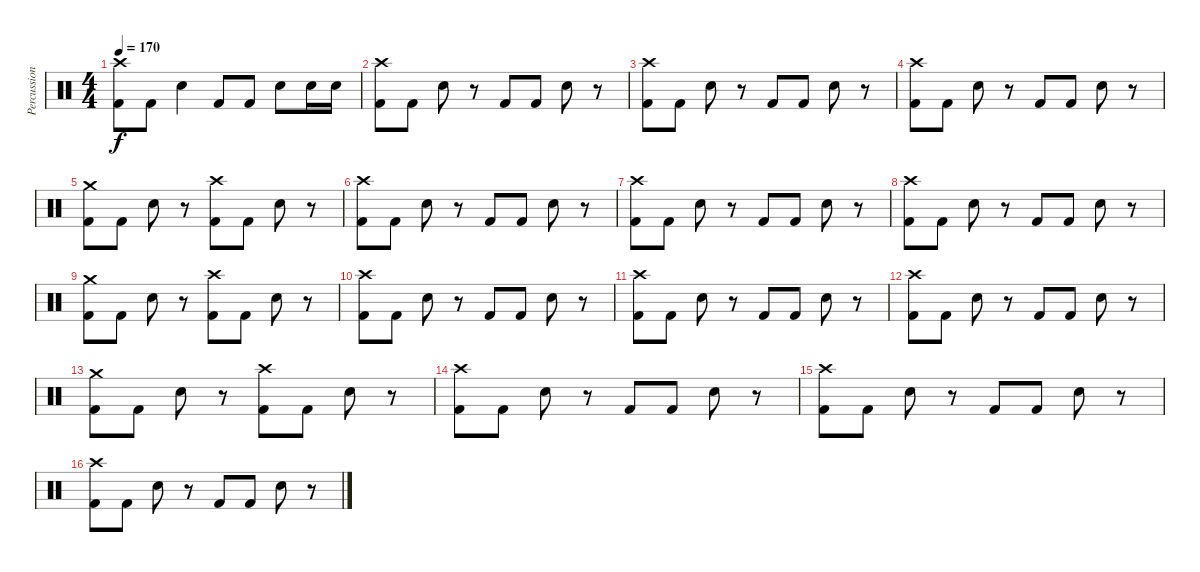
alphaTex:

\track ("Percussion" "Percussion") {instrument percussion}
\staff {score}
\articulation defaults
\ts (4 4)
\tempo 170
\clef neutral
\ks c
("Crash high (hit)" "Kick (hit) 2").8{dy f} "Kick (hit) 2".8 "Electric Snare (hit)".4 "Kick (hit) 2".8 "Kick (hit) 2".8 "Electric Snare (hit)".8 "Electric Snare (hit)".16 "Electric Snare (hit)".16 |
("Crash high (hit)" "Kick (hit) 2").8 "Kick (hit) 2".8 "Electric Snare (hit)".8 r.8 "Kick (hit) 2".8 "Kick (hit) 2".8 "Electric Snare (hit)".8 r.8 |
("Crash high (hit)" "Kick (hit) 2").8 "Kick (hit) 2".8 "Electric Snare (hit)".8 r.8 "Kick (hit) 2".8 "Kick (hit) 2".8 "Electric Snare (hit)".8 r.8 |
("Crash high (hit)" "Kick (hit) 2").8 "Kick (hit) 2".8 "Electric Snare (hit)".8 r.8 "Kick (hit) 2".8 "Kick (hit) 2".8 "Electric Snare (hit)".8 r.8 |
("Crash medium (hit)" "Kick (hit) 2").8 "Kick (hit) 2".8 "Electric Snare (hit)".8 r.8 ("Crash high (hit)" "Kick (hit) 2").8 "Kick (hit) 2".8 "Electric Snare (hit)".8 r.8 |
("Crash high (hit)" "Kick (hit) 2").8 "Kick (hit) 2".8 "Electric Snare (hit)".8 r.8 "Kick (hit) 2".8 "Kick (hit) 2".8 "Electric Snare (hit)".8 r.8 |
("Crash high (hit)" "Kick (hit) 2").8 "Kick (hit) 2".8 "Electric Snare (hit)".8 r.8 "Kick (hit) 2".8 "Kick (hit) 2".8 "Electric Snare (hit)".8 r.8 |
("Crash high (hit)" "Kick (hit) 2").8 "Kick (hit) 2".8 "Electric Snare (hit)".8 r.8 "Kick (hit) 2".8 "Kick (hit) 2".8 "Electric Snare (hit)".8 r.8 |
("Crash medium (hit)" "Kick (hit) 2").8 "Kick (hit) 2".8 "Electric Snare (hit)".8 r.8 ("Crash high (hit)" "Kick (hit) 2").8 "Kick (hit) 2".8 "Electric Snare (hit)".8 r.8 |
("Crash high (hit)" "Kick (hit) 2").8 "Kick (hit) 2".8 "Electric Snare (hit)".8 r.8 "Kick (hit) 2".8 "Kick (hit) 2".8 "Electric Snare (hit)".8 r.8 |
("Crash high (hit)" "Kick (hit) 2").8 "Kick (hit) 2".8 "Electric Snare (hit)".8 r.8 "Kick (hit) 2".8 "Kick (hit) 2".8 "Electric Snare (hit)".8 r.8 |
("Crash high (hit)" "Kick (hit) 2").8 "Kick (hit) 2".8 "Electric Snare (hit)".8 r.8 "Kick (hit) 2".8 "Kick (hit) 2".8 "Electric Snare (hit)".8 r.8 |
("Crash medium (hit)" "Kick (hit) 2").8 "Kick (hit) 2".8 "Electric Snare (hit)".8 r.8 ("Crash high (hit)" "Kick (hit) 2").8 "Kick (hit) 2".8 "Electric Snare (hit)".8 r.8 |
("Crash high (hit)" "Kick (hit) 2").8 "Kick (hit) 2".8 "Electric Snare (hit)".8 r.8 "Kick (hit) 2".8 "Kick (hit) 2".8 "Electric Snare (hit)".8 r.8 |
("Crash high (hit)" "Kick (hit) 2").8 "Kick (hit) 2".8 "Electric Snare (hit)".8 r.8 "Kick (hit) 2".8 "Kick (hit) 2".8 "Electric Snare (hit)".8 r.8 |
("Crash high (hit)" "Kick (hit) 2").8 "Kick (hit) 2".8 "Electric Snare (hit)".8 r.8 "Kick (hit) 2".8 "Kick (hit) 2".8 "Electric Snare (hit)".8 r.8
